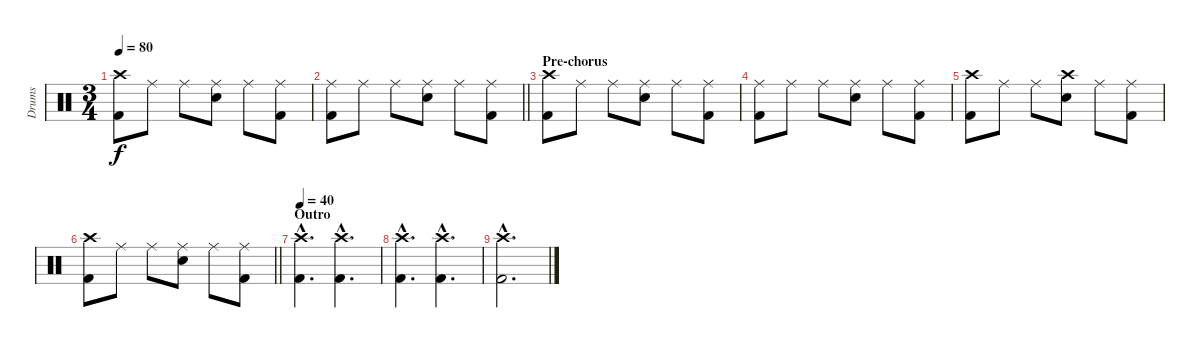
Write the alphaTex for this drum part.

\track ("Drums" "Drums") {instrument percussion}
\staff {score}
\articulation defaults
\ts (3 4)
\tempo 80
\clef neutral
\ks c
("Crash high (hit)" "Kick (hit) 2").8{dy f} "Ride (middle)".8 "Ride (middle)".8 ("Ride (middle)" "Electric Snare (hit)").8 "Ride (middle)".8 ("Ride (middle)" "Kick (hit) 2").8 |
\barLineRight lightlight
("Ride (middle)" "Kick (hit) 2").8 "Ride (middle)".8 "Ride (middle)".8 ("Ride (middle)" "Electric Snare (hit)").8 "Ride (middle)".8 ("Ride (middle)" "Kick (hit) 2").8 |
\section ("" "Pre-chorus")
("Crash high (hit)" "Kick (hit) 2").8 "Ride (middle)".8 "Ride (middle)".8 ("Ride (middle)" "Electric Snare (hit)").8 "Ride (middle)".8 ("Ride (middle)" "Kick (hit) 2").8 |
("Ride (middle)" "Kick (hit) 2").8 "Ride (middle)".8 "Ride (middle)".8 ("Ride (middle)" "Electric Snare (hit)").8 "Ride (middle)".8 ("Ride (middle)" "Kick (hit) 2").8 |
("Crash high (hit)" "Kick (hit) 2").8 "Ride (middle)".8 "Ride (middle)".8 ("Crash high (hit)" "Electric Snare (hit)").8 "Ride (middle)".8 ("Ride (middle)" "Kick (hit) 2").8 |
\barLineRight lightlight
("Crash high (hit)" "Kick (hit) 2").8 "Ride (middle)".8 "Ride (middle)".8 ("Ride (middle)" "Electric Snare (hit)").8 "Ride (middle)".8 ("Ride (middle)" "Kick (hit) 2").8 |
\section ("" "Outro")
\tempo 40
("Crash high (hit)"{hac} "Kick (hit) 2"{hac}).4{d} ("Crash high (hit)"{hac} "Kick (hit) 2"{hac}).4{d} |
("Crash high (hit)"{hac} "Kick (hit) 2"{hac}).4{d} ("Crash high (hit)"{hac} "Kick (hit) 2"{hac}).4{d} |
("Crash high (hit)"{hac} "Kick (hit) 2"{hac}).2{d}
